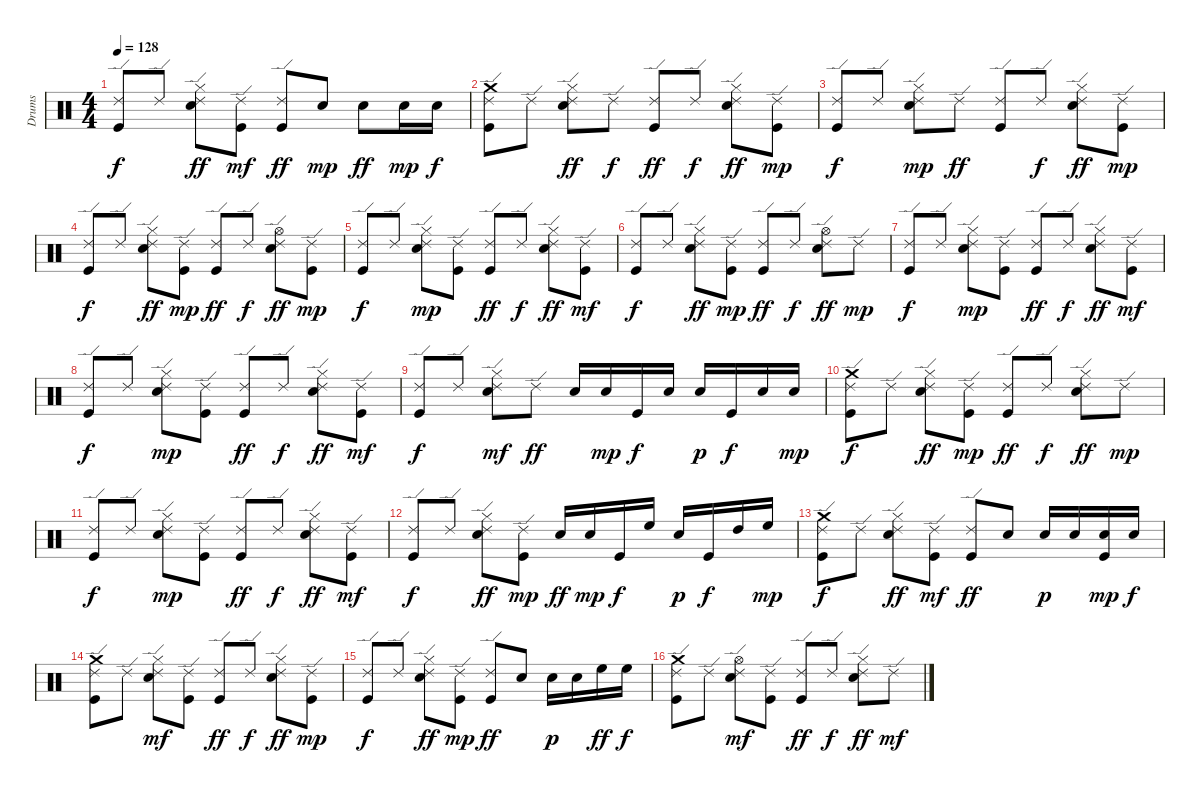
\track ("Drums" "Drums") {instrument percussion}
\staff {score}
\articulation defaults
\ts (4 4)
\tempo 128
\clef neutral
\ks c
("Ride (edge) 2" "Kick (hit)").8{dy f} "Ride (edge) 2".8 ("Electric Snare (hit)" "Hi-Hat (closed)" "Ride (edge) 2").8{dy ff} ("Ride (edge) 2" "Kick (hit)").8{dy mf} ("Ride (edge) 2" "Kick (hit)").8{dy ff} "Electric Snare (hit)".8{dy mp} "Electric Snare (hit)".8{dy ff} "Electric Snare (hit)".16{dy mp} "Electric Snare (hit)".16{dy f} |
("Crash medium (hit)" "Ride (edge) 2" "Kick (hit)").8 "Ride (edge) 2".8 ("Electric Snare (hit)" "Hi-Hat (closed)" "Ride (edge) 2").8{dy ff} "Ride (edge) 2".8{dy f} ("Ride (edge) 2" "Kick (hit)").8{dy ff} "Ride (edge) 2".8{dy f} ("Electric Snare (hit)" "Hi-Hat (closed)" "Ride (edge) 2").8{dy ff} ("Ride (edge) 2" "Kick (hit)").8{dy mp} |
("Ride (edge) 2" "Kick (hit)").8{dy f} "Ride (edge) 2".8 ("Electric Snare (hit)" "Hi-Hat (closed)" "Ride (edge) 2").8{dy mp} "Ride (edge) 2".8{dy ff} ("Ride (edge) 2" "Kick (hit)").8 "Ride (edge) 2".8{dy f} ("Electric Snare (hit)" "Hi-Hat (closed)" "Ride (edge) 2").8{dy ff} ("Ride (edge) 2" "Kick (hit)").8{dy mp} |
("Ride (edge) 2" "Kick (hit)").8{dy f} "Ride (edge) 2".8 ("Electric Snare (hit)" "Hi-Hat (closed)" "Ride (edge) 2").8{dy ff} ("Ride (edge) 2" "Kick (hit)").8{dy mp} ("Ride (edge) 2" "Kick (hit)").8{dy ff} "Ride (edge) 2".8{dy f} ("Electric Snare (hit)" "Hi-Hat (open)" "Ride (edge) 2").8{dy ff} ("Ride (edge) 2" "Kick (hit)").8{dy mp} |
("Ride (edge) 2" "Kick (hit)").8{dy f} "Ride (edge) 2".8 ("Electric Snare (hit)" "Hi-Hat (closed)" "Ride (edge) 2").8{dy mp} ("Ride (edge) 2" "Kick (hit)").8 ("Ride (edge) 2" "Kick (hit)").8{dy ff} "Ride (edge) 2".8{dy f} ("Electric Snare (hit)" "Hi-Hat (closed)" "Ride (edge) 2").8{dy ff} ("Ride (edge) 2" "Kick (hit)").8{dy mf} |
("Ride (edge) 2" "Kick (hit)").8{dy f} "Ride (edge) 2".8 ("Electric Snare (hit)" "Hi-Hat (closed)" "Ride (edge) 2").8{dy ff} ("Ride (edge) 2" "Kick (hit)").8{dy mp} ("Ride (edge) 2" "Kick (hit)").8{dy ff} "Ride (edge) 2".8{dy f} ("Electric Snare (hit)" "Hi-Hat (open)" "Ride (edge) 2").8{dy ff} "Ride (edge) 2".8{dy mp} |
("Ride (edge) 2" "Kick (hit)").8{dy f} "Ride (edge) 2".8 ("Electric Snare (hit)" "Hi-Hat (closed)" "Ride (edge) 2").8{dy mp} ("Ride (edge) 2" "Kick (hit)").8 ("Ride (edge) 2" "Kick (hit)").8{dy ff} "Ride (edge) 2".8{dy f} ("Electric Snare (hit)" "Hi-Hat (closed)" "Ride (edge) 2").8{dy ff} ("Ride (edge) 2" "Kick (hit)").8{dy mf} |
("Ride (edge) 2" "Kick (hit)").8{dy f} "Ride (edge) 2".8 ("Electric Snare (hit)" "Hi-Hat (closed)" "Ride (edge) 2").8{dy mp} ("Ride (edge) 2" "Kick (hit)").8 ("Ride (edge) 2" "Kick (hit)").8{dy ff} "Ride (edge) 2".8{dy f} ("Electric Snare (hit)" "Hi-Hat (closed)" "Ride (edge) 2").8{dy ff} ("Ride (edge) 2" "Kick (hit)").8{dy mf} |
("Ride (edge) 2" "Kick (hit)").8{dy f} "Ride (edge) 2".8 ("Electric Snare (hit)" "Hi-Hat (closed)" "Ride (edge) 2").8{dy mf} "Ride (edge) 2".8{dy ff} "Electric Snare (hit)".16 "Electric Snare (hit)".16{dy mp} "Kick (hit)".16{dy f} "Electric Snare (hit)".16 "Electric Snare (hit)".16{dy p} "Kick (hit)".16{dy f} "Electric Snare (hit)".16 "Electric Snare (hit)".16{dy mp} |
("Crash medium (hit)" "Ride (edge) 2" "Kick (hit)").8{dy f} "Ride (edge) 2".8 ("Electric Snare (hit)" "Hi-Hat (closed)" "Ride (edge) 2").8{dy ff} ("Ride (edge) 2" "Kick (hit)").8{dy mp} ("Ride (edge) 2" "Kick (hit)").8{dy ff} "Ride (edge) 2".8{dy f} ("Electric Snare (hit)" "Hi-Hat (closed)" "Ride (edge) 2").8{dy ff} "Ride (edge) 2".8{dy mp} |
("Ride (edge) 2" "Kick (hit)").8{dy f} "Ride (edge) 2".8 ("Electric Snare (hit)" "Hi-Hat (closed)" "Ride (edge) 2").8{dy mp} ("Ride (edge) 2" "Kick (hit)").8 ("Ride (edge) 2" "Kick (hit)").8{dy ff} "Ride (edge) 2".8{dy f} ("Electric Snare (hit)" "Hi-Hat (closed)" "Ride (edge) 2").8{dy ff} ("Ride (edge) 2" "Kick (hit)").8{dy mf} |
("Ride (edge) 2" "Kick (hit)").8{dy f} "Ride (edge) 2".8 ("Electric Snare (hit)" "Hi-Hat (closed)" "Ride (edge) 2").8{dy ff} ("Ride (edge) 2" "Kick (hit)").8{dy mp} "Electric Snare (hit)".16{dy ff} "Electric Snare (hit)".16{dy mp} "Kick (hit)".16{dy f} "High Floor Tom (hit)".16 "Electric Snare (hit)".16{dy p} "Kick (hit)".16{dy f} "High Tom (hit)".16 "High Floor Tom (hit)".16{dy mp} |
("Crash medium (hit)" "Ride (edge) 2" "Kick (hit)").8{dy f} "Ride (edge) 2".8 ("Electric Snare (hit)" "Hi-Hat (closed)" "Ride (edge) 2").8{dy ff} ("Ride (edge) 2" "Kick (hit)").8{dy mf} ("Ride (edge) 2" "Kick (hit)").8{dy ff} "Electric Snare (hit)".8 "Electric Snare (hit)".16{dy p} "Electric Snare (hit)".16 ("Electric Snare (hit)" "Kick (hit)").16{dy mp} "Electric Snare (hit)".16{dy f} |
("Crash medium (hit)" "Ride (edge) 2" "Kick (hit)").8 "Ride (edge) 2".8 ("Electric Snare (hit)" "Hi-Hat (closed)" "Ride (edge) 2").8{dy mf} ("Ride (edge) 2" "Kick (hit)").8 ("Ride (edge) 2" "Kick (hit)").8{dy ff} "Ride (edge) 2".8{dy f} ("Electric Snare (hit)" "Hi-Hat (closed)" "Ride (edge) 2").8{dy ff} ("Ride (edge) 2" "Kick (hit)").8{dy mp} |
("Ride (edge) 2" "Kick (hit)").8{dy f} "Ride (edge) 2".8 ("Electric Snare (hit)" "Hi-Hat (closed)" "Ride (edge) 2").8{dy ff} ("Ride (edge) 2" "Kick (hit)").8{dy mp} ("Ride (edge) 2" "Kick (hit)").8{dy ff} "Electric Snare (hit)".8 "Electric Snare (hit)".16{dy p} "Electric Snare (hit)".16 "High Floor Tom (hit)".16{dy ff} "High Floor Tom (hit)".16{dy f} |
("Crash medium (hit)" "Ride (edge) 2" "Kick (hit)").8 "Ride (edge) 2".8 ("Electric Snare (hit)" "Hi-Hat (open)" "Ride (edge) 2").8{dy mf} ("Ride (edge) 2" "Kick (hit)").8 ("Ride (edge) 2" "Kick (hit)").8{dy ff} "Ride (edge) 2".8{dy f} ("Electric Snare (hit)" "Hi-Hat (closed)" "Ride (edge) 2").8{dy ff} "Ride (edge) 2".8{dy mf}
